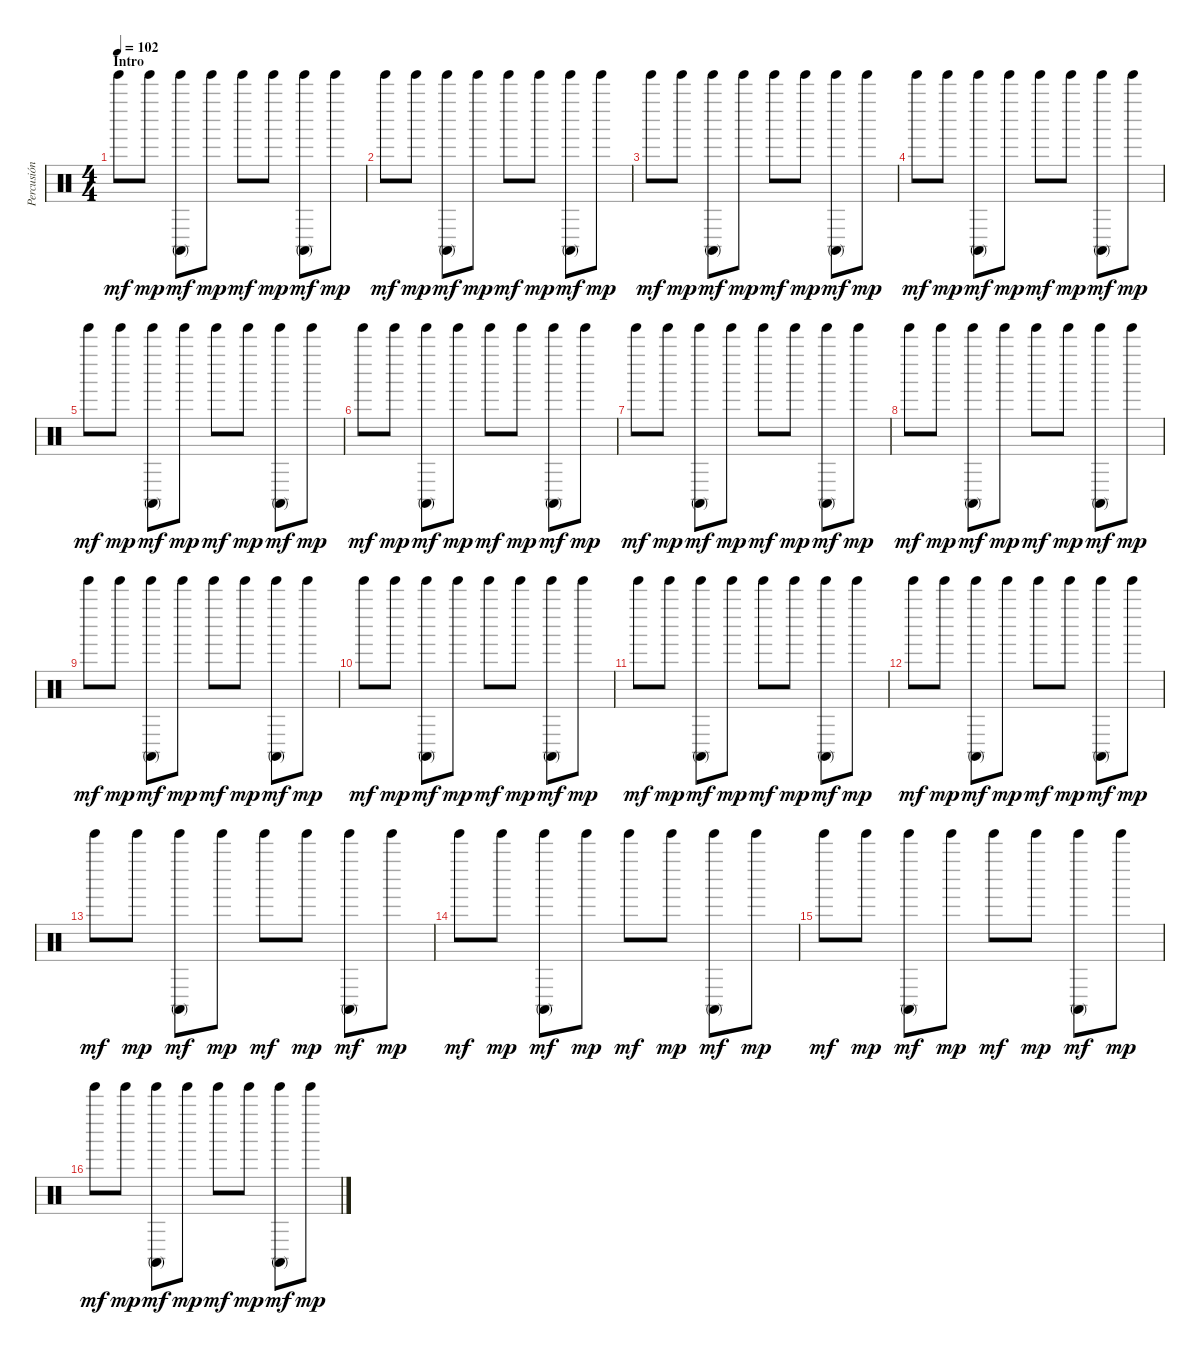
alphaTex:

\track ("Percusión" "Percusión") {instrument percussion}
\staff {score}
\articulation defaults
\ts (4 4)
\section ("" "Intro")
\tempo 102
\clef neutral
\ks c "Tinkle Bell (hit)".8{dy mf} "Tinkle Bell (hit)".8{dy mp}
("Conga high (mute)" "Tinkle Bell (hit)").8{dy mf} "Tinkle Bell (hit)".8{dy mp} "Tinkle Bell (hit)".8{dy mf} "Tinkle Bell (hit)".8{dy mp} ("Conga high (mute)" "Tinkle Bell (hit)").8{dy mf} "Tinkle Bell (hit)".8{dy mp} |
"Tinkle Bell (hit)".8{dy mf} "Tinkle Bell (hit)".8{dy mp} ("Conga high (mute)" "Tinkle Bell (hit)").8{dy mf} "Tinkle Bell (hit)".8{dy mp} "Tinkle Bell (hit)".8{dy mf} "Tinkle Bell (hit)".8{dy mp} ("Conga high (mute)" "Tinkle Bell (hit)").8{dy mf} "Tinkle Bell (hit)".8{dy mp} |
"Tinkle Bell (hit)".8{dy mf} "Tinkle Bell (hit)".8{dy mp} ("Conga high (mute)" "Tinkle Bell (hit)").8{dy mf} "Tinkle Bell (hit)".8{dy mp} "Tinkle Bell (hit)".8{dy mf} "Tinkle Bell (hit)".8{dy mp} ("Conga high (mute)" "Tinkle Bell (hit)").8{dy mf} "Tinkle Bell (hit)".8{dy mp} |
"Tinkle Bell (hit)".8{dy mf} "Tinkle Bell (hit)".8{dy mp} ("Conga high (mute)" "Tinkle Bell (hit)").8{dy mf} "Tinkle Bell (hit)".8{dy mp} "Tinkle Bell (hit)".8{dy mf} "Tinkle Bell (hit)".8{dy mp} ("Conga high (mute)" "Tinkle Bell (hit)").8{dy mf} "Tinkle Bell (hit)".8{dy mp} |
"Tinkle Bell (hit)".8{dy mf} "Tinkle Bell (hit)".8{dy mp} ("Conga high (mute)" "Tinkle Bell (hit)").8{dy mf} "Tinkle Bell (hit)".8{dy mp} "Tinkle Bell (hit)".8{dy mf} "Tinkle Bell (hit)".8{dy mp} ("Conga high (mute)" "Tinkle Bell (hit)").8{dy mf} "Tinkle Bell (hit)".8{dy mp} |
"Tinkle Bell (hit)".8{dy mf} "Tinkle Bell (hit)".8{dy mp} ("Conga high (mute)" "Tinkle Bell (hit)").8{dy mf} "Tinkle Bell (hit)".8{dy mp} "Tinkle Bell (hit)".8{dy mf} "Tinkle Bell (hit)".8{dy mp} ("Conga high (mute)" "Tinkle Bell (hit)").8{dy mf} "Tinkle Bell (hit)".8{dy mp} |
"Tinkle Bell (hit)".8{dy mf} "Tinkle Bell (hit)".8{dy mp} ("Conga high (mute)" "Tinkle Bell (hit)").8{dy mf} "Tinkle Bell (hit)".8{dy mp} "Tinkle Bell (hit)".8{dy mf} "Tinkle Bell (hit)".8{dy mp} ("Conga high (mute)" "Tinkle Bell (hit)").8{dy mf} "Tinkle Bell (hit)".8{dy mp} |
"Tinkle Bell (hit)".8{dy mf} "Tinkle Bell (hit)".8{dy mp} ("Conga high (mute)" "Tinkle Bell (hit)").8{dy mf} "Tinkle Bell (hit)".8{dy mp} "Tinkle Bell (hit)".8{dy mf} "Tinkle Bell (hit)".8{dy mp} ("Conga high (mute)" "Tinkle Bell (hit)").8{dy mf} "Tinkle Bell (hit)".8{dy mp} |
"Tinkle Bell (hit)".8{dy mf} "Tinkle Bell (hit)".8{dy mp} ("Conga high (mute)" "Tinkle Bell (hit)").8{dy mf} "Tinkle Bell (hit)".8{dy mp} "Tinkle Bell (hit)".8{dy mf} "Tinkle Bell (hit)".8{dy mp} ("Conga high (mute)" "Tinkle Bell (hit)").8{dy mf} "Tinkle Bell (hit)".8{dy mp} |
"Tinkle Bell (hit)".8{dy mf} "Tinkle Bell (hit)".8{dy mp} ("Conga high (mute)" "Tinkle Bell (hit)").8{dy mf} "Tinkle Bell (hit)".8{dy mp} "Tinkle Bell (hit)".8{dy mf} "Tinkle Bell (hit)".8{dy mp} ("Conga high (mute)" "Tinkle Bell (hit)").8{dy mf} "Tinkle Bell (hit)".8{dy mp} |
"Tinkle Bell (hit)".8{dy mf} "Tinkle Bell (hit)".8{dy mp} ("Conga high (mute)" "Tinkle Bell (hit)").8{dy mf} "Tinkle Bell (hit)".8{dy mp} "Tinkle Bell (hit)".8{dy mf} "Tinkle Bell (hit)".8{dy mp} ("Conga high (mute)" "Tinkle Bell (hit)").8{dy mf} "Tinkle Bell (hit)".8{dy mp} |
"Tinkle Bell (hit)".8{dy mf} "Tinkle Bell (hit)".8{dy mp} ("Conga high (mute)" "Tinkle Bell (hit)").8{dy mf} "Tinkle Bell (hit)".8{dy mp} "Tinkle Bell (hit)".8{dy mf} "Tinkle Bell (hit)".8{dy mp} ("Conga high (mute)" "Tinkle Bell (hit)").8{dy mf} "Tinkle Bell (hit)".8{dy mp} |
"Tinkle Bell (hit)".8{dy mf} "Tinkle Bell (hit)".8{dy mp} ("Conga high (mute)" "Tinkle Bell (hit)").8{dy mf} "Tinkle Bell (hit)".8{dy mp} "Tinkle Bell (hit)".8{dy mf} "Tinkle Bell (hit)".8{dy mp} ("Conga high (mute)" "Tinkle Bell (hit)").8{dy mf} "Tinkle Bell (hit)".8{dy mp} |
"Tinkle Bell (hit)".8{dy mf} "Tinkle Bell (hit)".8{dy mp} ("Conga high (mute)" "Tinkle Bell (hit)").8{dy mf} "Tinkle Bell (hit)".8{dy mp} "Tinkle Bell (hit)".8{dy mf} "Tinkle Bell (hit)".8{dy mp} ("Conga high (mute)" "Tinkle Bell (hit)").8{dy mf} "Tinkle Bell (hit)".8{dy mp} |
"Tinkle Bell (hit)".8{dy mf} "Tinkle Bell (hit)".8{dy mp} ("Conga high (mute)" "Tinkle Bell (hit)").8{dy mf} "Tinkle Bell (hit)".8{dy mp} "Tinkle Bell (hit)".8{dy mf} "Tinkle Bell (hit)".8{dy mp} ("Conga high (mute)" "Tinkle Bell (hit)").8{dy mf} "Tinkle Bell (hit)".8{dy mp} |
"Tinkle Bell (hit)".8{dy mf} "Tinkle Bell (hit)".8{dy mp} ("Conga high (mute)" "Tinkle Bell (hit)").8{dy mf} "Tinkle Bell (hit)".8{dy mp} "Tinkle Bell (hit)".8{dy mf} "Tinkle Bell (hit)".8{dy mp} ("Conga high (mute)" "Tinkle Bell (hit)").8{dy mf} "Tinkle Bell (hit)".8{dy mp}
